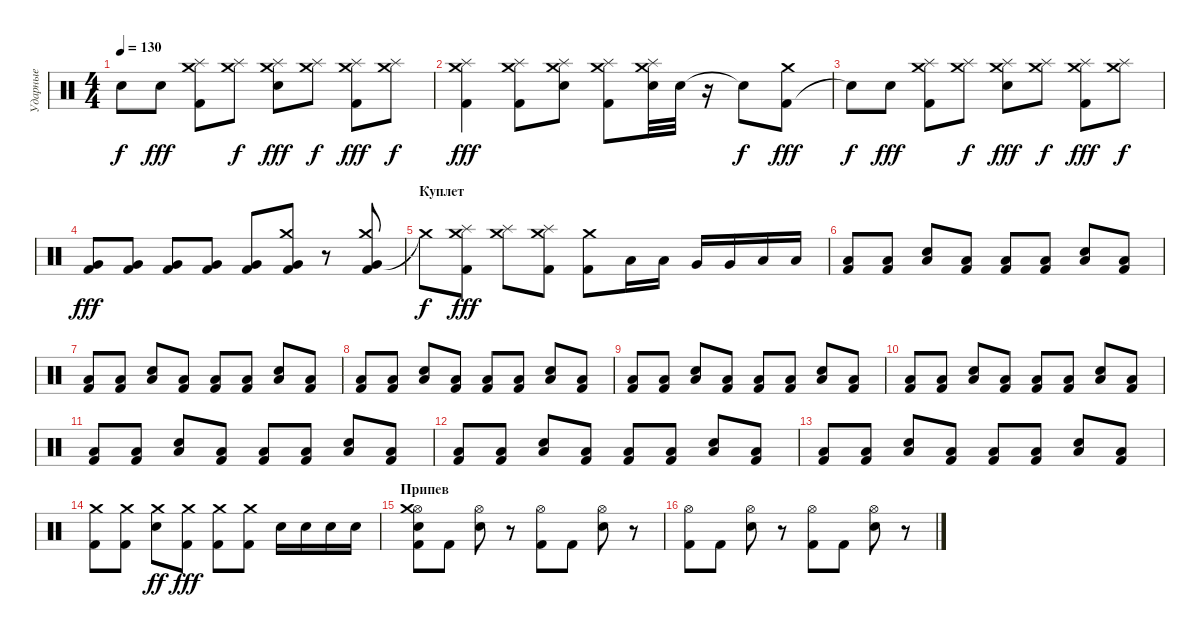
\track ("Ударные" "Ударные") {instrument percussion}
\staff {score}
\articulation defaults
\ts (4 4)
\tempo 130
\clef neutral
\ks c "Snare (hit)"{t}.8{dy f} "Snare (hit) 2".8{dy fff}
("Kick (hit) 2" "Crash medium (hit)" "Splash (hit)").8 ("Crash medium (hit)" "Splash (hit)").8{dy f} ("Snare (hit) 2" "Crash medium (hit)" "Splash (hit)").8{dy fff} ("Crash medium (hit)" "Splash (hit)").8{dy f} ("Kick (hit) 2" "Crash medium (hit)" "Splash (hit)").8{dy fff} ("Crash medium (hit)" "Splash (hit)").8{dy f} |
("Kick (hit) 2" "Crash medium (hit)" "Splash (hit)").4{dy fff} ("Kick (hit) 2" "Crash medium (hit)" "Splash (hit)").8 ("Snare (hit) 2" "Crash medium (hit)" "Splash (hit)").8 ("Kick (hit) 2" "Crash medium (hit)" "Splash (hit)").8 ("Snare (hit) 2" "Crash medium (hit)" "Splash (hit)").32 "Snare (hit) 2".32 r.16 "Snare (hit)"{t}.8{dy f} ("Kick (hit) 2" "Crash medium (hit)").8{dy fff} |
"Snare (hit)"{t}.8{dy f} "Snare (hit) 2".8{dy fff} ("Kick (hit) 2" "Crash medium (hit)" "Splash (hit)").8 ("Crash medium (hit)" "Splash (hit)").8{dy f} ("Snare (hit) 2" "Crash medium (hit)" "Splash (hit)").8{dy fff} ("Crash medium (hit)" "Splash (hit)").8{dy f} ("Kick (hit) 2" "Crash medium (hit)" "Splash (hit)").8{dy fff} ("Crash medium (hit)" "Splash (hit)").8{dy f} |
("Very Low Tom (hit)" "Kick (hit) 2").8{dy fff} ("Very Low Tom (hit)" "Kick (hit) 2").8 ("Very Low Tom (hit)" "Kick (hit) 2").8 ("Very Low Tom (hit)" "Kick (hit) 2").8 ("Very Low Tom (hit)" "Kick (hit) 2").8 ("Very Low Tom (hit)" "Kick (hit) 2" "Crash medium (hit)").8 r.8 ("Very Low Tom (hit)" "Kick (hit) 2" "Crash medium (hit)").8 |
\section ("" "Куплет")
"Crash medium (hit)"{t}.8{dy f} ("Kick (hit) 2" "Crash medium (hit)" "Splash (hit)").8{dy fff} ("Crash medium (hit)" "Splash (hit)").8 ("Kick (hit) 2" "Crash medium (hit)" "Splash (hit)").8 ("Kick (hit) 2" "Crash medium (hit)").8 "Low Tom (hit)".16 "Low Tom (hit)".16 "Very Low Tom (hit)".16 "Very Low Tom (hit)".16 "Low Floor Tom (hit)".16 "Low Floor Tom (hit)".16 |
("Kick (hit) 2" "Low Tom (hit)").8 ("Kick (hit) 2" "Low Tom (hit)").8 ("Snare (hit) 2" "Low Tom (hit)").8 ("Kick (hit) 2" "Low Tom (hit)").8 ("Kick (hit) 2" "Low Tom (hit)").8 ("Kick (hit) 2" "Low Tom (hit)").8 ("Snare (hit) 2" "Low Tom (hit)").8 ("Kick (hit) 2" "Low Tom (hit)").8 |
("Kick (hit) 2" "Low Tom (hit)").8 ("Kick (hit) 2" "Low Tom (hit)").8 ("Snare (hit) 2" "Low Tom (hit)").8 ("Kick (hit) 2" "Low Tom (hit)").8 ("Kick (hit) 2" "Low Tom (hit)").8 ("Kick (hit) 2" "Low Tom (hit)").8 ("Snare (hit) 2" "Low Tom (hit)").8 ("Kick (hit) 2" "Low Tom (hit)").8 |
("Kick (hit) 2" "Low Tom (hit)").8 ("Kick (hit) 2" "Low Tom (hit)").8 ("Snare (hit) 2" "Low Tom (hit)").8 ("Kick (hit) 2" "Low Tom (hit)").8 ("Kick (hit) 2" "Low Tom (hit)").8 ("Kick (hit) 2" "Low Tom (hit)").8 ("Snare (hit) 2" "Low Tom (hit)").8 ("Kick (hit) 2" "Low Tom (hit)").8 |
("Kick (hit) 2" "Low Tom (hit)").8 ("Kick (hit) 2" "Low Tom (hit)").8 ("Snare (hit) 2" "Low Tom (hit)").8 ("Kick (hit) 2" "Low Tom (hit)").8 ("Kick (hit) 2" "Low Tom (hit)").8 ("Kick (hit) 2" "Low Tom (hit)").8 ("Snare (hit) 2" "Low Tom (hit)").8 ("Kick (hit) 2" "Low Tom (hit)").8 |
("Kick (hit) 2" "Low Tom (hit)").8 ("Kick (hit) 2" "Low Tom (hit)").8 ("Snare (hit) 2" "Low Tom (hit)").8 ("Kick (hit) 2" "Low Tom (hit)").8 ("Kick (hit) 2" "Low Tom (hit)").8 ("Kick (hit) 2" "Low Tom (hit)").8 ("Snare (hit) 2" "Low Tom (hit)").8 ("Kick (hit) 2" "Low Tom (hit)").8 |
("Kick (hit) 2" "Low Tom (hit)").8 ("Kick (hit) 2" "Low Tom (hit)").8 ("Snare (hit) 2" "Low Tom (hit)").8 ("Kick (hit) 2" "Low Tom (hit)").8 ("Kick (hit) 2" "Low Tom (hit)").8 ("Kick (hit) 2" "Low Tom (hit)").8 ("Snare (hit) 2" "Low Tom (hit)").8 ("Kick (hit) 2" "Low Tom (hit)").8 |
("Kick (hit) 2" "Low Tom (hit)").8 ("Kick (hit) 2" "Low Tom (hit)").8 ("Snare (hit) 2" "Low Tom (hit)").8 ("Kick (hit) 2" "Low Tom (hit)").8 ("Kick (hit) 2" "Low Tom (hit)").8 ("Kick (hit) 2" "Low Tom (hit)").8 ("Snare (hit) 2" "Low Tom (hit)").8 ("Kick (hit) 2" "Low Tom (hit)").8 |
("Kick (hit) 2" "Low Tom (hit)").8 ("Kick (hit) 2" "Low Tom (hit)").8 ("Snare (hit) 2" "Low Tom (hit)").8 ("Kick (hit) 2" "Low Tom (hit)").8 ("Kick (hit) 2" "Low Tom (hit)").8 ("Kick (hit) 2" "Low Tom (hit)").8 ("Snare (hit) 2" "Low Tom (hit)").8 ("Kick (hit) 2" "Low Tom (hit)").8 |
("Kick (hit) 2" "Crash medium (hit)").8 ("Kick (hit) 2" "Crash medium (hit)").8 ("Snare (hit) 2" "Crash medium (hit)").8{dy ff} ("Kick (hit) 2" "Crash medium (hit)").8{dy fff} ("Kick (hit) 2" "Crash medium (hit)").8 ("Kick (hit) 2" "Crash medium (hit)").8 "Snare (hit) 2".16 "Snare (hit) 2".16 "Snare (hit) 2".16 "Snare (hit) 2".16 |
\section ("" "Припев")
("Kick (hit) 2" "Hi-Hat (open)" "Crash medium (hit)" "Snare (hit) 2").8 "Kick (hit) 2".8 ("Snare (hit) 2" "Hi-Hat (open)").8 r.8 ("Kick (hit) 2" "Hi-Hat (open)").8 "Kick (hit) 2".8 ("Snare (hit) 2" "Hi-Hat (open)").8 r.8 |
("Kick (hit) 2" "Hi-Hat (open)").8 "Kick (hit) 2".8 ("Snare (hit) 2" "Hi-Hat (open)").8 r.8 ("Kick (hit) 2" "Hi-Hat (open)").8 "Kick (hit) 2".8 ("Snare (hit) 2" "Hi-Hat (open)").8 r.8
